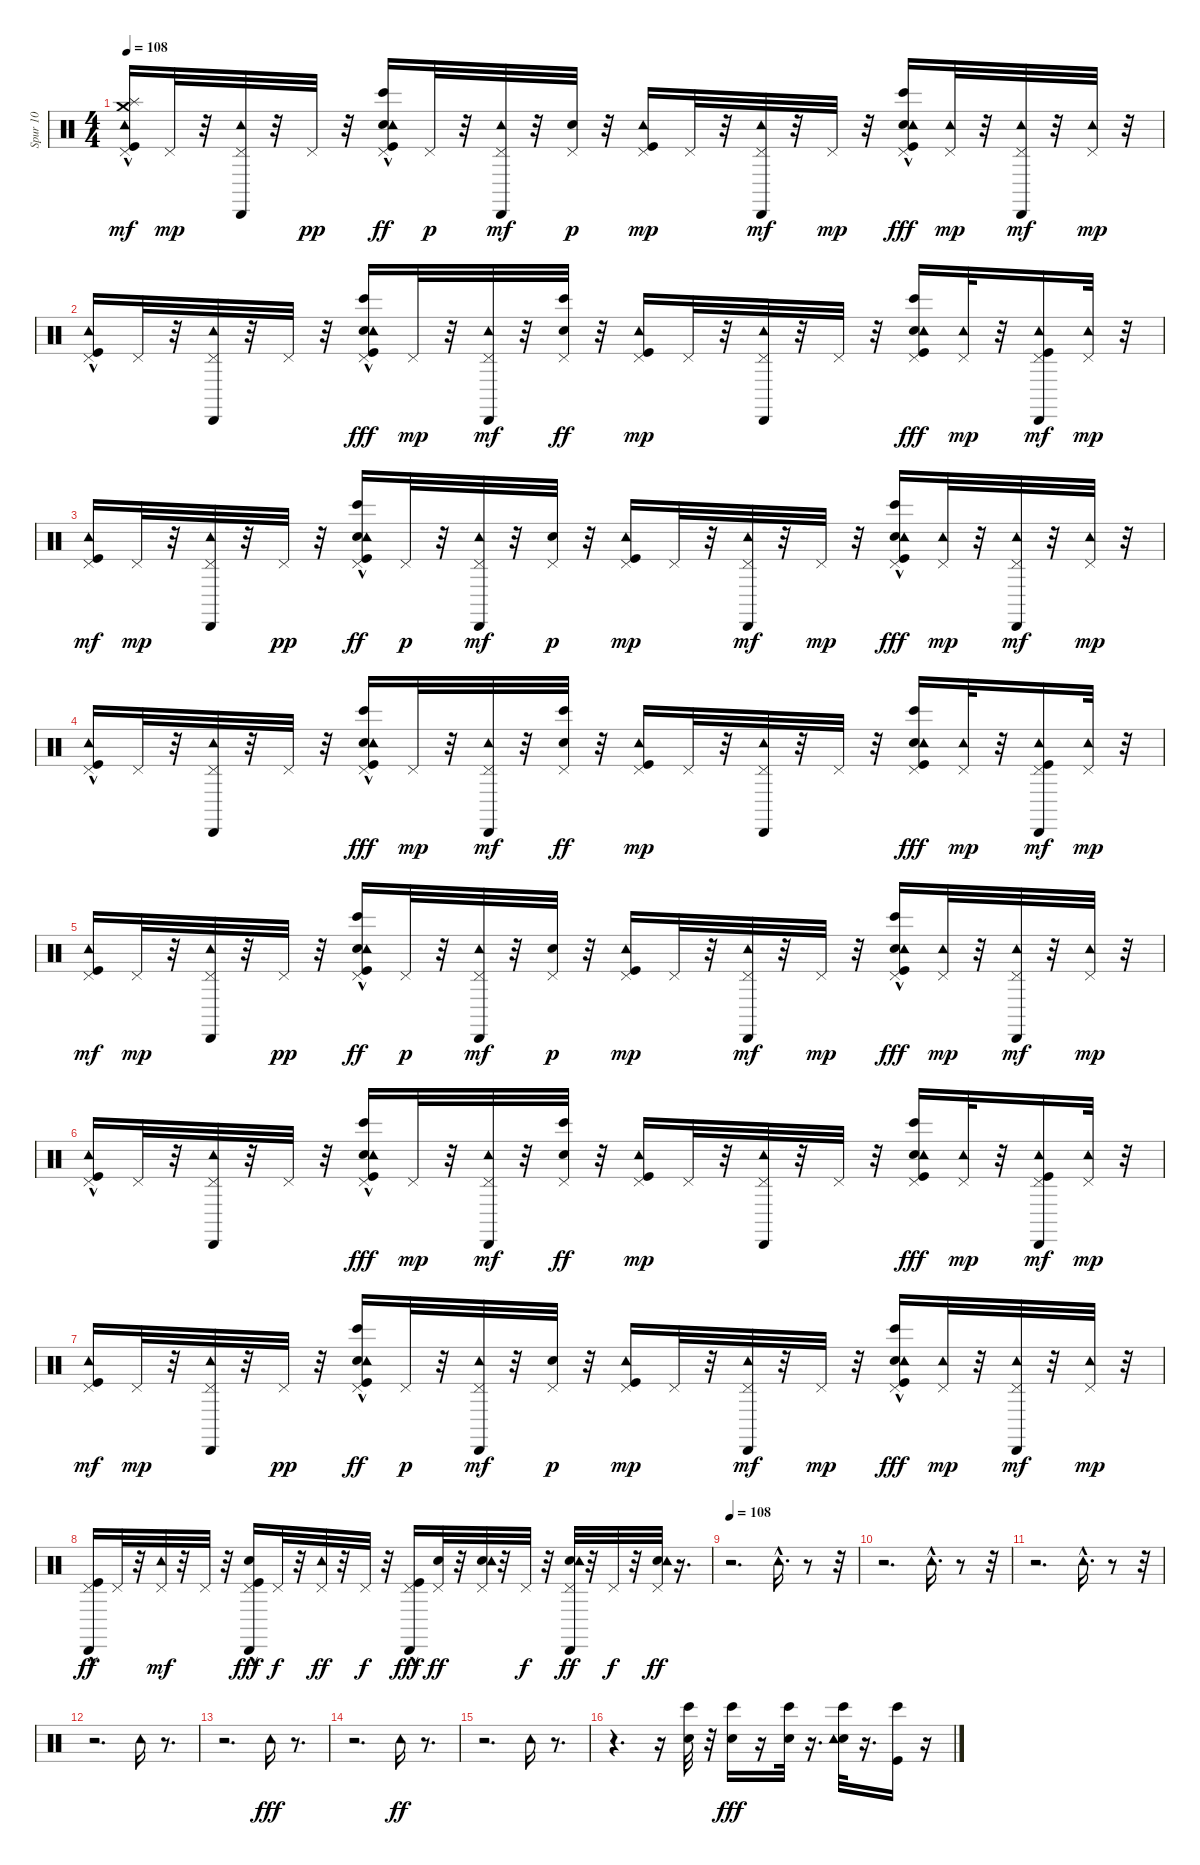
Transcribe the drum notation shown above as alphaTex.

\track ("Spur 10" "Spur 10") {instrument percussion}
\staff {score}
\articulation defaults
\ts (4 4)
\tempo 108
\clef neutral
\ks c
("Kick (hit)" "Tambourine (hit)" "Pedal Hi-Hat (hit)" "Splash (hit)"{hac} "Crash medium (hit)").16{dy mf} "Pedal Hi-Hat (hit)".32{dy mp} r.32 ("Tambourine (hit)" "Pedal Hi-Hat (hit)" "Cabasa (hit)").32 r.32 "Pedal Hi-Hat (hit)".32{dy pp} r.32 ("Kick (hit)"{hac} "Snare (hit) 2"{hac} "Tambourine (hit)" "Pedal Hi-Hat (hit)" "Bongo High (hit)").16{dy ff} "Pedal Hi-Hat (hit)".32{dy p} r.32 ("Tambourine (hit)" "Pedal Hi-Hat (hit)" "Cabasa (hit)").32{dy mf} r.32 ("Snare (hit) 2" "Pedal Hi-Hat (hit)").32{dy p} r.32 ("Kick (hit)" "Tambourine (hit)" "Pedal Hi-Hat (hit)").16{dy mp} "Pedal Hi-Hat (hit)".32 r.32 ("Tambourine (hit)" "Pedal Hi-Hat (hit)" "Cabasa (hit)").32{dy mf} r.32 "Pedal Hi-Hat (hit)".32{dy mp} r.32 ("Snare (hit) 2" "Kick (hit)"{hac} "Tambourine (hit)" "Pedal Hi-Hat (hit)" "Bongo High (hit)").16{dy fff} ("Tambourine (hit)" "Pedal Hi-Hat (hit)").32{dy mp} r.32 ("Tambourine (hit)" "Pedal Hi-Hat (hit)" "Cabasa (hit)").32{dy mf} r.32 ("Tambourine (hit)" "Pedal Hi-Hat (hit)").32{dy mp} r.32 |
("Kick (hit)"{hac} "Tambourine (hit)" "Pedal Hi-Hat (hit)").16 "Pedal Hi-Hat (hit)".32 r.32 ("Tambourine (hit)" "Pedal Hi-Hat (hit)" "Cabasa (hit)").32 r.32 "Pedal Hi-Hat (hit)".32 r.32 ("Kick (hit)"{hac} "Snare (hit) 2" "Tambourine (hit)" "Pedal Hi-Hat (hit)" "Bongo High (hit)"{hac}).16{dy fff} "Pedal Hi-Hat (hit)".32{dy mp} r.32 ("Tambourine (hit)" "Pedal Hi-Hat (hit)" "Cabasa (hit)").32{dy mf} r.32 ("Snare (hit) 2" "Pedal Hi-Hat (hit)" "Bongo High (hit)").32{dy ff} r.32 ("Kick (hit)" "Tambourine (hit)" "Pedal Hi-Hat (hit)").16{dy mp} "Pedal Hi-Hat (hit)".32 r.32 ("Tambourine (hit)" "Pedal Hi-Hat (hit)" "Cabasa (hit)").32 r.32 "Pedal Hi-Hat (hit)".32 r.32 ("Snare (hit) 2" "Kick (hit)" "Tambourine (hit)" "Pedal Hi-Hat (hit)" "Bongo High (hit)").16{dy fff} ("Tambourine (hit)" "Pedal Hi-Hat (hit)").32{dy mp} r.32 ("Kick (hit)" "Tambourine (hit)" "Pedal Hi-Hat (hit)" "Cabasa (hit)").16{dy mf} ("Tambourine (hit)" "Pedal Hi-Hat (hit)").32{dy mp} r.32 |
("Kick (hit)" "Tambourine (hit)" "Pedal Hi-Hat (hit)").16{dy mf} "Pedal Hi-Hat (hit)".32{dy mp} r.32 ("Tambourine (hit)" "Pedal Hi-Hat (hit)" "Cabasa (hit)").32 r.32 "Pedal Hi-Hat (hit)".32{dy pp} r.32 ("Kick (hit)"{hac} "Snare (hit) 2"{hac} "Tambourine (hit)" "Pedal Hi-Hat (hit)" "Bongo High (hit)").16{dy ff} "Pedal Hi-Hat (hit)".32{dy p} r.32 ("Tambourine (hit)" "Pedal Hi-Hat (hit)" "Cabasa (hit)").32{dy mf} r.32 ("Snare (hit) 2" "Pedal Hi-Hat (hit)").32{dy p} r.32 ("Kick (hit)" "Tambourine (hit)" "Pedal Hi-Hat (hit)").16{dy mp} "Pedal Hi-Hat (hit)".32 r.32 ("Tambourine (hit)" "Pedal Hi-Hat (hit)" "Cabasa (hit)").32{dy mf} r.32 "Pedal Hi-Hat (hit)".32{dy mp} r.32 ("Snare (hit) 2" "Kick (hit)"{hac} "Tambourine (hit)" "Pedal Hi-Hat (hit)" "Bongo High (hit)").16{dy fff} ("Tambourine (hit)" "Pedal Hi-Hat (hit)").32{dy mp} r.32 ("Tambourine (hit)" "Pedal Hi-Hat (hit)" "Cabasa (hit)").32{dy mf} r.32 ("Tambourine (hit)" "Pedal Hi-Hat (hit)").32{dy mp} r.32 |
("Kick (hit)"{hac} "Tambourine (hit)" "Pedal Hi-Hat (hit)").16 "Pedal Hi-Hat (hit)".32 r.32 ("Tambourine (hit)" "Pedal Hi-Hat (hit)" "Cabasa (hit)").32 r.32 "Pedal Hi-Hat (hit)".32 r.32 ("Kick (hit)"{hac} "Snare (hit) 2" "Tambourine (hit)" "Pedal Hi-Hat (hit)" "Bongo High (hit)"{hac}).16{dy fff} "Pedal Hi-Hat (hit)".32{dy mp} r.32 ("Tambourine (hit)" "Pedal Hi-Hat (hit)" "Cabasa (hit)").32{dy mf} r.32 ("Snare (hit) 2" "Pedal Hi-Hat (hit)" "Bongo High (hit)").32{dy ff} r.32 ("Kick (hit)" "Tambourine (hit)" "Pedal Hi-Hat (hit)").16{dy mp} "Pedal Hi-Hat (hit)".32 r.32 ("Tambourine (hit)" "Pedal Hi-Hat (hit)" "Cabasa (hit)").32 r.32 "Pedal Hi-Hat (hit)".32 r.32 ("Snare (hit) 2" "Kick (hit)" "Tambourine (hit)" "Pedal Hi-Hat (hit)" "Bongo High (hit)").16{dy fff} ("Tambourine (hit)" "Pedal Hi-Hat (hit)").32{dy mp} r.32 ("Kick (hit)" "Tambourine (hit)" "Pedal Hi-Hat (hit)" "Cabasa (hit)").16{dy mf} ("Tambourine (hit)" "Pedal Hi-Hat (hit)").32{dy mp} r.32 |
("Kick (hit)" "Tambourine (hit)" "Pedal Hi-Hat (hit)").16{dy mf} "Pedal Hi-Hat (hit)".32{dy mp} r.32 ("Tambourine (hit)" "Pedal Hi-Hat (hit)" "Cabasa (hit)").32 r.32 "Pedal Hi-Hat (hit)".32{dy pp} r.32 ("Kick (hit)"{hac} "Snare (hit) 2"{hac} "Tambourine (hit)" "Pedal Hi-Hat (hit)" "Bongo High (hit)").16{dy ff} "Pedal Hi-Hat (hit)".32{dy p} r.32 ("Tambourine (hit)" "Pedal Hi-Hat (hit)" "Cabasa (hit)").32{dy mf} r.32 ("Snare (hit) 2" "Pedal Hi-Hat (hit)").32{dy p} r.32 ("Kick (hit)" "Tambourine (hit)" "Pedal Hi-Hat (hit)").16{dy mp} "Pedal Hi-Hat (hit)".32 r.32 ("Tambourine (hit)" "Pedal Hi-Hat (hit)" "Cabasa (hit)").32{dy mf} r.32 "Pedal Hi-Hat (hit)".32{dy mp} r.32 ("Snare (hit) 2" "Kick (hit)"{hac} "Tambourine (hit)" "Pedal Hi-Hat (hit)" "Bongo High (hit)").16{dy fff} ("Tambourine (hit)" "Pedal Hi-Hat (hit)").32{dy mp} r.32 ("Tambourine (hit)" "Pedal Hi-Hat (hit)" "Cabasa (hit)").32{dy mf} r.32 ("Tambourine (hit)" "Pedal Hi-Hat (hit)").32{dy mp} r.32 |
("Kick (hit)"{hac} "Tambourine (hit)" "Pedal Hi-Hat (hit)").16 "Pedal Hi-Hat (hit)".32 r.32 ("Tambourine (hit)" "Pedal Hi-Hat (hit)" "Cabasa (hit)").32 r.32 "Pedal Hi-Hat (hit)".32 r.32 ("Kick (hit)"{hac} "Snare (hit) 2" "Tambourine (hit)" "Pedal Hi-Hat (hit)" "Bongo High (hit)"{hac}).16{dy fff} "Pedal Hi-Hat (hit)".32{dy mp} r.32 ("Tambourine (hit)" "Pedal Hi-Hat (hit)" "Cabasa (hit)").32{dy mf} r.32 ("Snare (hit) 2" "Pedal Hi-Hat (hit)" "Bongo High (hit)").32{dy ff} r.32 ("Kick (hit)" "Tambourine (hit)" "Pedal Hi-Hat (hit)").16{dy mp} "Pedal Hi-Hat (hit)".32 r.32 ("Tambourine (hit)" "Pedal Hi-Hat (hit)" "Cabasa (hit)").32 r.32 "Pedal Hi-Hat (hit)".32 r.32 ("Snare (hit) 2" "Kick (hit)" "Tambourine (hit)" "Pedal Hi-Hat (hit)" "Bongo High (hit)").16{dy fff} ("Tambourine (hit)" "Pedal Hi-Hat (hit)").32{dy mp} r.32 ("Kick (hit)" "Tambourine (hit)" "Pedal Hi-Hat (hit)" "Cabasa (hit)").16{dy mf} ("Tambourine (hit)" "Pedal Hi-Hat (hit)").32{dy mp} r.32 |
("Kick (hit)" "Tambourine (hit)" "Pedal Hi-Hat (hit)").16{dy mf} "Pedal Hi-Hat (hit)".32{dy mp} r.32 ("Tambourine (hit)" "Pedal Hi-Hat (hit)" "Cabasa (hit)").32 r.32 "Pedal Hi-Hat (hit)".32{dy pp} r.32 ("Kick (hit)"{hac} "Snare (hit) 2"{hac} "Tambourine (hit)" "Pedal Hi-Hat (hit)" "Bongo High (hit)").16{dy ff} "Pedal Hi-Hat (hit)".32{dy p} r.32 ("Tambourine (hit)" "Pedal Hi-Hat (hit)" "Cabasa (hit)").32{dy mf} r.32 ("Snare (hit) 2" "Pedal Hi-Hat (hit)").32{dy p} r.32 ("Kick (hit)" "Tambourine (hit)" "Pedal Hi-Hat (hit)").16{dy mp} "Pedal Hi-Hat (hit)".32 r.32 ("Tambourine (hit)" "Pedal Hi-Hat (hit)" "Cabasa (hit)").32{dy mf} r.32 "Pedal Hi-Hat (hit)".32{dy mp} r.32 ("Snare (hit) 2" "Kick (hit)"{hac} "Tambourine (hit)" "Pedal Hi-Hat (hit)" "Bongo High (hit)").16{dy fff} ("Tambourine (hit)" "Pedal Hi-Hat (hit)").32{dy mp} r.32 ("Tambourine (hit)" "Pedal Hi-Hat (hit)" "Cabasa (hit)").32{dy mf} r.32 ("Tambourine (hit)" "Pedal Hi-Hat (hit)").32{dy mp} r.32 |
("Kick (hit)"{hac} "Pedal Hi-Hat (hit)" "Cabasa (hit)"{hac}).16{dy ff} "Pedal Hi-Hat (hit)".32 r.32 ("Pedal Hi-Hat (hit)" "Tambourine (hit)").32{dy mf} r.32 "Pedal Hi-Hat (hit)".32 r.32 ("Kick (hit)" "Snare (hit) 2"{hac} "Pedal Hi-Hat (hit)" "Cabasa (hit)"{hac}).16{dy fff} "Pedal Hi-Hat (hit)".32{dy f} r.32 ("Pedal Hi-Hat (hit)" "Tambourine (hit)").32{dy ff} r.32 "Pedal Hi-Hat (hit)".32{dy f} r.32 ("Kick (hit)" "Pedal Hi-Hat (hit)" "Cabasa (hit)"{hac}).16{dy fff} ("Snare (hit) 2" "Pedal Hi-Hat (hit)").32{dy ff} r.32 ("Snare (hit) 2" "Pedal Hi-Hat (hit)" "Tambourine (hit)").32 r.32 "Pedal Hi-Hat (hit)".32{dy f} r.32 ("Snare (hit) 2" "Pedal Hi-Hat (hit)" "Tambourine (hit)" "Cabasa (hit)").32{dy ff} r.32 "Pedal Hi-Hat (hit)".32{dy f} r.32 ("Snare (hit) 2" "Pedal Hi-Hat (hit)" "Tambourine (hit)").32{dy ff} r.16{d} |
\tempo 108
r.2{d} "Tambourine (hit)"{hac}.16{d} r.8 r.32 |
r.2{d} "Tambourine (hit)"{hac}.16{d} r.8 r.32 |
r.2{d} "Tambourine (hit)"{hac}.16{d} r.8 r.32 |
r.2{d} "Tambourine (hit)".16 r.8{d} |
r.2{d} "Tambourine (hit)".16{dy fff} r.8{d} |
r.2{d} "Tambourine (hit)".16{dy ff} r.8{d} |
r.2{d} "Tambourine (hit)".16 r.8{d} |
r.4{d} r.16 ("Snare (hit) 2" "Bongo High (hit)").32 r.32 ("Snare (hit) 2" "Bongo High (hit)").16{dy fff} r.16 ("Snare (hit) 2" "Bongo High (hit)").32 r.16{d} ("Snare (hit) 2" "Tambourine (hit)" "Bongo High (hit)").32 r.16{d} ("Kick (hit)" "Bongo High (hit)").16 r.16
